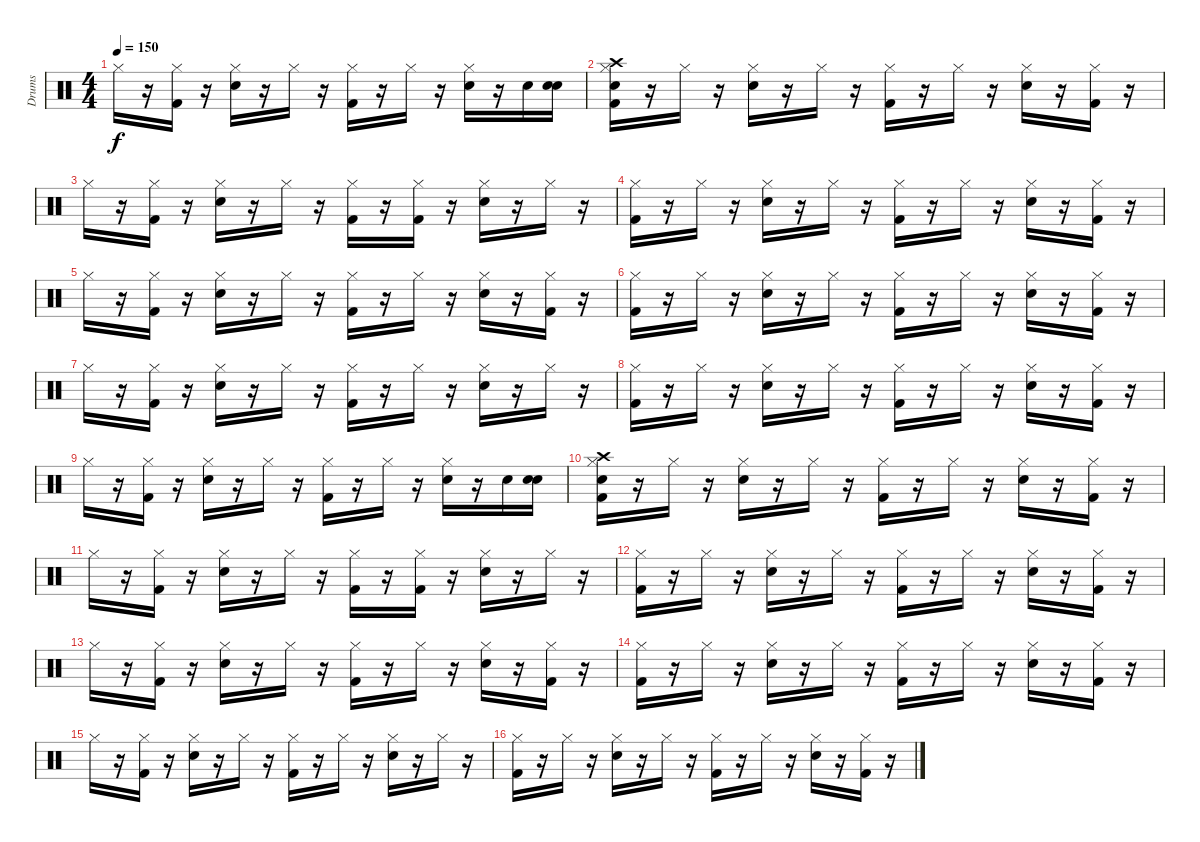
\track ("Drums" "Drums") {instrument percussion}
\staff {score}
\articulation defaults
\ts (4 4)
\tempo 150
\clef neutral
\ks c "Hi-Hat (closed)".16{dy f}
r.16 ("Kick (hit) 2" "Hi-Hat (closed)").16 r.16 ("Snare (hit) 2" "Hi-Hat (closed)").16 r.16 "Hi-Hat (closed)".16 r.16 ("Kick (hit) 2" "Hi-Hat (closed)").16 r.16 "Hi-Hat (closed)".16 r.16 ("Snare (hit) 2" "Hi-Hat (closed)").16 r.16 "Snare (hit) 2".16 ("Snare (hit)" "Snare (hit) 2").16 |
("Snare (hit)" "Crash high (hit)" "Kick (hit) 2" "Hi-Hat (closed)").16 r.16 "Hi-Hat (closed)".16 r.16 ("Snare (hit) 2" "Hi-Hat (closed)").16 r.16 "Hi-Hat (closed)".16 r.16 ("Kick (hit) 2" "Hi-Hat (closed)").16 r.16 "Hi-Hat (closed)".16 r.16 ("Snare (hit) 2" "Hi-Hat (closed)").16 r.16 ("Kick (hit) 2" "Hi-Hat (closed)").16 r.16 |
"Hi-Hat (closed)".16 r.16 ("Kick (hit) 2" "Hi-Hat (closed)").16 r.16 ("Snare (hit) 2" "Hi-Hat (closed)").16 r.16 "Hi-Hat (closed)".16 r.16 ("Kick (hit) 2" "Hi-Hat (closed)").16 r.16 ("Kick (hit) 2" "Hi-Hat (closed)").16 r.16 ("Snare (hit) 2" "Hi-Hat (closed)").16 r.16 "Hi-Hat (closed)".16 r.16 |
("Kick (hit) 2" "Hi-Hat (closed)").16 r.16 "Hi-Hat (closed)".16 r.16 ("Snare (hit) 2" "Hi-Hat (closed)").16 r.16 "Hi-Hat (closed)".16 r.16 ("Kick (hit) 2" "Hi-Hat (closed)").16 r.16 "Hi-Hat (closed)".16 r.16 ("Snare (hit) 2" "Hi-Hat (closed)").16 r.16 ("Kick (hit) 2" "Hi-Hat (closed)").16 r.16 |
"Hi-Hat (closed)".16 r.16 ("Kick (hit) 2" "Hi-Hat (closed)").16 r.16 ("Snare (hit) 2" "Hi-Hat (closed)").16 r.16 "Hi-Hat (closed)".16 r.16 ("Kick (hit) 2" "Hi-Hat (closed)").16 r.16 "Hi-Hat (closed)".16 r.16 ("Snare (hit) 2" "Hi-Hat (closed)").16 r.16 ("Kick (hit) 2" "Hi-Hat (closed)").16 r.16 |
("Kick (hit) 2" "Hi-Hat (closed)").16 r.16 "Hi-Hat (closed)".16 r.16 ("Snare (hit) 2" "Hi-Hat (closed)").16 r.16 "Hi-Hat (closed)".16 r.16 ("Kick (hit) 2" "Hi-Hat (closed)").16 r.16 "Hi-Hat (closed)".16 r.16 ("Snare (hit) 2" "Hi-Hat (closed)").16 r.16 ("Kick (hit) 2" "Hi-Hat (closed)").16 r.16 |
"Hi-Hat (closed)".16 r.16 ("Kick (hit) 2" "Hi-Hat (closed)").16 r.16 ("Snare (hit) 2" "Hi-Hat (closed)").16 r.16 "Hi-Hat (closed)".16 r.16 ("Kick (hit) 2" "Hi-Hat (closed)").16 r.16 "Hi-Hat (closed)".16 r.16 ("Snare (hit) 2" "Hi-Hat (closed)").16 r.16 "Hi-Hat (closed)".16 r.16 |
("Kick (hit) 2" "Hi-Hat (closed)").16 r.16 "Hi-Hat (closed)".16 r.16 ("Snare (hit) 2" "Hi-Hat (closed)").16 r.16 "Hi-Hat (closed)".16 r.16 ("Kick (hit) 2" "Hi-Hat (closed)").16 r.16 "Hi-Hat (closed)".16 r.16 ("Snare (hit) 2" "Hi-Hat (closed)").16 r.16 ("Kick (hit) 2" "Hi-Hat (closed)").16 r.16 |
"Hi-Hat (closed)".16 r.16 ("Kick (hit) 2" "Hi-Hat (closed)").16 r.16 ("Snare (hit) 2" "Hi-Hat (closed)").16 r.16 "Hi-Hat (closed)".16 r.16 ("Kick (hit) 2" "Hi-Hat (closed)").16 r.16 "Hi-Hat (closed)".16 r.16 ("Snare (hit) 2" "Hi-Hat (closed)").16 r.16 "Snare (hit) 2".16 ("Snare (hit)" "Snare (hit) 2").16 |
("Snare (hit)" "Crash high (hit)" "Kick (hit) 2" "Hi-Hat (closed)").16 r.16 "Hi-Hat (closed)".16 r.16 ("Snare (hit) 2" "Hi-Hat (closed)").16 r.16 "Hi-Hat (closed)".16 r.16 ("Kick (hit) 2" "Hi-Hat (closed)").16 r.16 "Hi-Hat (closed)".16 r.16 ("Snare (hit) 2" "Hi-Hat (closed)").16 r.16 ("Kick (hit) 2" "Hi-Hat (closed)").16 r.16 |
"Hi-Hat (closed)".16 r.16 ("Kick (hit) 2" "Hi-Hat (closed)").16 r.16 ("Snare (hit) 2" "Hi-Hat (closed)").16 r.16 "Hi-Hat (closed)".16 r.16 ("Kick (hit) 2" "Hi-Hat (closed)").16 r.16 ("Kick (hit) 2" "Hi-Hat (closed)").16 r.16 ("Snare (hit) 2" "Hi-Hat (closed)").16 r.16 "Hi-Hat (closed)".16 r.16 |
("Kick (hit) 2" "Hi-Hat (closed)").16 r.16 "Hi-Hat (closed)".16 r.16 ("Snare (hit) 2" "Hi-Hat (closed)").16 r.16 "Hi-Hat (closed)".16 r.16 ("Kick (hit) 2" "Hi-Hat (closed)").16 r.16 "Hi-Hat (closed)".16 r.16 ("Snare (hit) 2" "Hi-Hat (closed)").16 r.16 ("Kick (hit) 2" "Hi-Hat (closed)").16 r.16 |
"Hi-Hat (closed)".16 r.16 ("Kick (hit) 2" "Hi-Hat (closed)").16 r.16 ("Snare (hit) 2" "Hi-Hat (closed)").16 r.16 "Hi-Hat (closed)".16 r.16 ("Kick (hit) 2" "Hi-Hat (closed)").16 r.16 "Hi-Hat (closed)".16 r.16 ("Snare (hit) 2" "Hi-Hat (closed)").16 r.16 ("Kick (hit) 2" "Hi-Hat (closed)").16 r.16 |
("Kick (hit) 2" "Hi-Hat (closed)").16 r.16 "Hi-Hat (closed)".16 r.16 ("Snare (hit) 2" "Hi-Hat (closed)").16 r.16 "Hi-Hat (closed)".16 r.16 ("Kick (hit) 2" "Hi-Hat (closed)").16 r.16 "Hi-Hat (closed)".16 r.16 ("Snare (hit) 2" "Hi-Hat (closed)").16 r.16 ("Kick (hit) 2" "Hi-Hat (closed)").16 r.16 |
"Hi-Hat (closed)".16 r.16 ("Kick (hit) 2" "Hi-Hat (closed)").16 r.16 ("Snare (hit) 2" "Hi-Hat (closed)").16 r.16 "Hi-Hat (closed)".16 r.16 ("Kick (hit) 2" "Hi-Hat (closed)").16 r.16 "Hi-Hat (closed)".16 r.16 ("Snare (hit) 2" "Hi-Hat (closed)").16 r.16 "Hi-Hat (closed)".16 r.16 |
("Kick (hit) 2" "Hi-Hat (closed)").16 r.16 "Hi-Hat (closed)".16 r.16 ("Snare (hit) 2" "Hi-Hat (closed)").16 r.16 "Hi-Hat (closed)".16 r.16 ("Kick (hit) 2" "Hi-Hat (closed)").16 r.16 "Hi-Hat (closed)".16 r.16 ("Snare (hit) 2" "Hi-Hat (closed)").16 r.16 ("Kick (hit) 2" "Hi-Hat (closed)").16 r.16
